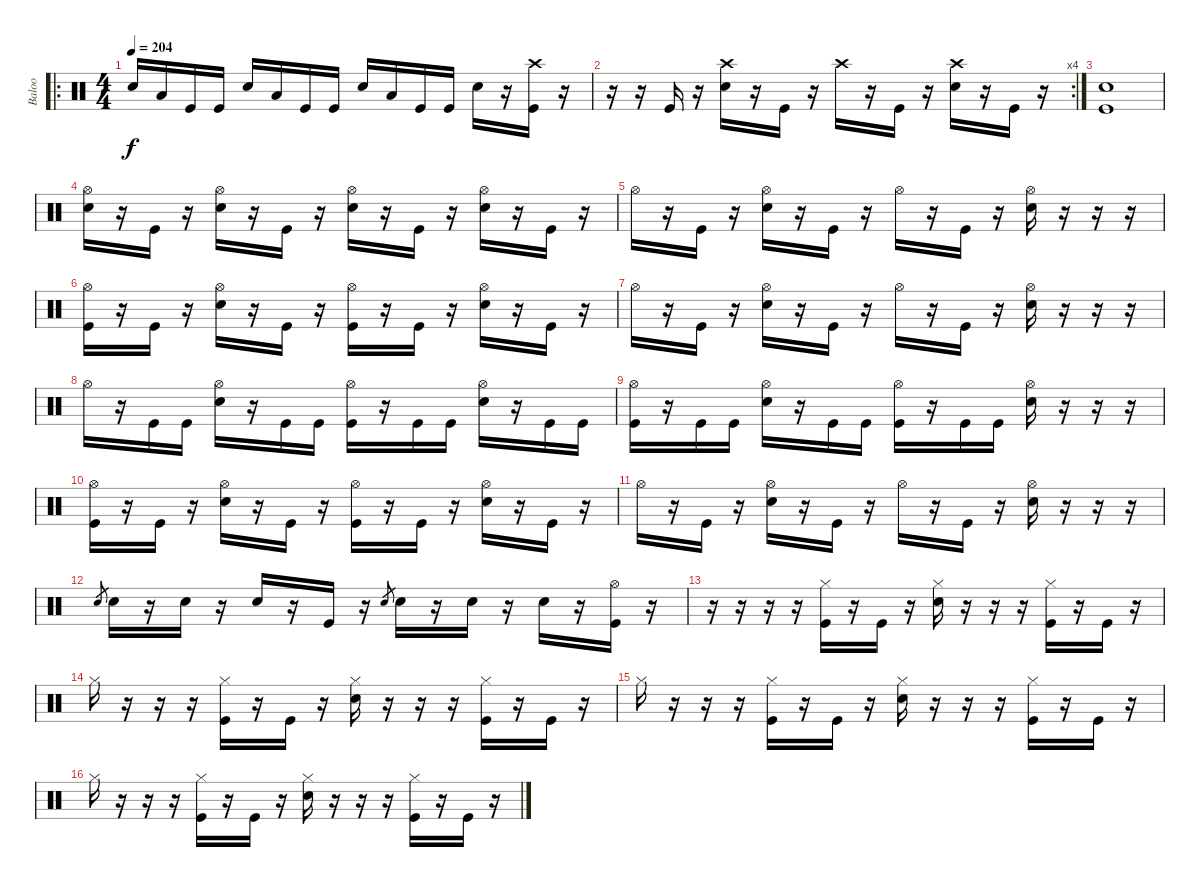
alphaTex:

\track ("Baloo" "Baloo") {instrument percussion}
\staff {score}
\articulation defaults
\ro
\ts (4 4)
\tempo 204
\clef neutral
\ks c "Electric Snare (hit)".16{dy f} "Low Floor Tom (hit)".16 "Kick (hit)".16 "Kick (hit)".16 "Electric Snare (hit)".16 "Low Floor Tom (hit)".16 "Kick (hit)".16 "Kick (hit)".16 "Electric Snare (hit)".16 "Low Floor Tom (hit)".16 "Kick (hit)".16 "Kick (hit)".16 "Electric Snare (hit)".16
r.16 ("Crash high (hit)" "Kick (hit)").16 r.16 |
\rc 4
r.16 r.16 "Kick (hit)".16 r.16 ("Crash high (hit)" "Electric Snare (hit)").16 r.16 "Kick (hit)".16 r.16 "Crash high (hit)".16 r.16 "Kick (hit)".16 r.16 ("Crash high (hit)" "Electric Snare (hit)").16 r.16 "Kick (hit)".16 r.16 |
("Electric Snare (hit)" "Kick (hit)").1 |
("Hi-Hat (open)" "Electric Snare (hit)").16 r.16 "Kick (hit)".16 r.16 ("Hi-Hat (open)" "Electric Snare (hit)").16 r.16 "Kick (hit)".16 r.16 ("Hi-Hat (open)" "Electric Snare (hit)").16 r.16 "Kick (hit)".16 r.16 ("Hi-Hat (open)" "Electric Snare (hit)").16 r.16 "Kick (hit)".16 r.16 |
"Hi-Hat (open)".16 r.16 "Kick (hit)".16 r.16 ("Hi-Hat (open)" "Electric Snare (hit)").16 r.16 "Kick (hit)".16 r.16 "Hi-Hat (open)".16 r.16 "Kick (hit)".16 r.16 ("Hi-Hat (open)" "Electric Snare (hit)").16 r.16 r.16 r.16 |
("Hi-Hat (open)" "Kick (hit)").16 r.16 "Kick (hit)".16 r.16 ("Hi-Hat (open)" "Electric Snare (hit)").16 r.16 "Kick (hit)".16 r.16 ("Hi-Hat (open)" "Kick (hit)").16 r.16 "Kick (hit)".16 r.16 ("Hi-Hat (open)" "Electric Snare (hit)").16 r.16 "Kick (hit)".16 r.16 |
"Hi-Hat (open)".16 r.16 "Kick (hit)".16 r.16 ("Hi-Hat (open)" "Electric Snare (hit)").16 r.16 "Kick (hit)".16 r.16 "Hi-Hat (open)".16 r.16 "Kick (hit)".16 r.16 ("Hi-Hat (open)" "Electric Snare (hit)").16 r.16 r.16 r.16 |
"Hi-Hat (open)".16 r.16 "Kick (hit)".16 "Kick (hit)".16 ("Hi-Hat (open)" "Electric Snare (hit)").16 r.16 "Kick (hit)".16 "Kick (hit)".16 ("Hi-Hat (open)" "Kick (hit)").16 r.16 "Kick (hit)".16 "Kick (hit)".16 ("Hi-Hat (open)" "Electric Snare (hit)").16 r.16 "Kick (hit)".16 "Kick (hit)".16 |
("Hi-Hat (open)" "Kick (hit)").16 r.16 "Kick (hit)".16 "Kick (hit)".16 ("Hi-Hat (open)" "Electric Snare (hit)").16 r.16 "Kick (hit)".16 "Kick (hit)".16 ("Hi-Hat (open)" "Kick (hit)").16 r.16 "Kick (hit)".16 "Kick (hit)".16 ("Hi-Hat (open)" "Electric Snare (hit)").16 r.16 r.16 r.16 |
("Hi-Hat (open)" "Kick (hit)").16 r.16 "Kick (hit)".16 r.16 ("Hi-Hat (open)" "Electric Snare (hit)").16 r.16 "Kick (hit)".16 r.16 ("Hi-Hat (open)" "Kick (hit)").16 r.16 "Kick (hit)".16 r.16 ("Hi-Hat (open)" "Electric Snare (hit)").16 r.16 "Kick (hit)".16 r.16 |
"Hi-Hat (open)".16 r.16 "Kick (hit)".16 r.16 ("Hi-Hat (open)" "Electric Snare (hit)").16 r.16 "Kick (hit)".16 r.16 "Hi-Hat (open)".16 r.16 "Kick (hit)".16 r.16 ("Hi-Hat (open)" "Electric Snare (hit)").16 r.16 r.16 r.16 |
"Electric Snare (hit)".8{gr} "Electric Snare (hit)".16 r.16 "Electric Snare (hit)".16 r.16 "Electric Snare (hit)".16 r.16 "Kick (hit)".16 r.16 "Electric Snare (hit)".8{gr} "Electric Snare (hit)".16 r.16 "Electric Snare (hit)".16 r.16 "Electric Snare (hit)".16 r.16 ("Hi-Hat (open)" "Kick (hit)").16 r.16 |
r.16 r.16 r.16 r.16 ("Hi-Hat (closed)" "Kick (hit)").16 r.16 "Kick (hit)".16 r.16 ("Hi-Hat (closed)" "Electric Snare (hit)").16 r.16 r.16 r.16 ("Hi-Hat (closed)" "Kick (hit)").16 r.16 "Kick (hit)".16 r.16 |
"Hi-Hat (closed)".16 r.16 r.16 r.16 ("Hi-Hat (closed)" "Kick (hit)").16 r.16 "Kick (hit)".16 r.16 ("Hi-Hat (closed)" "Electric Snare (hit)").16 r.16 r.16 r.16 ("Hi-Hat (closed)" "Kick (hit)").16 r.16 "Kick (hit)".16 r.16 |
"Hi-Hat (closed)".16 r.16 r.16 r.16 ("Hi-Hat (closed)" "Kick (hit)").16 r.16 "Kick (hit)".16 r.16 ("Hi-Hat (closed)" "Electric Snare (hit)").16 r.16 r.16 r.16 ("Hi-Hat (closed)" "Kick (hit)").16 r.16 "Kick (hit)".16 r.16 |
"Hi-Hat (closed)".16 r.16 r.16 r.16 ("Hi-Hat (closed)" "Kick (hit)").16 r.16 "Kick (hit)".16 r.16 ("Hi-Hat (closed)" "Electric Snare (hit)").16 r.16 r.16 r.16 ("Hi-Hat (closed)" "Kick (hit)").16 r.16 "Kick (hit)".16 r.16
